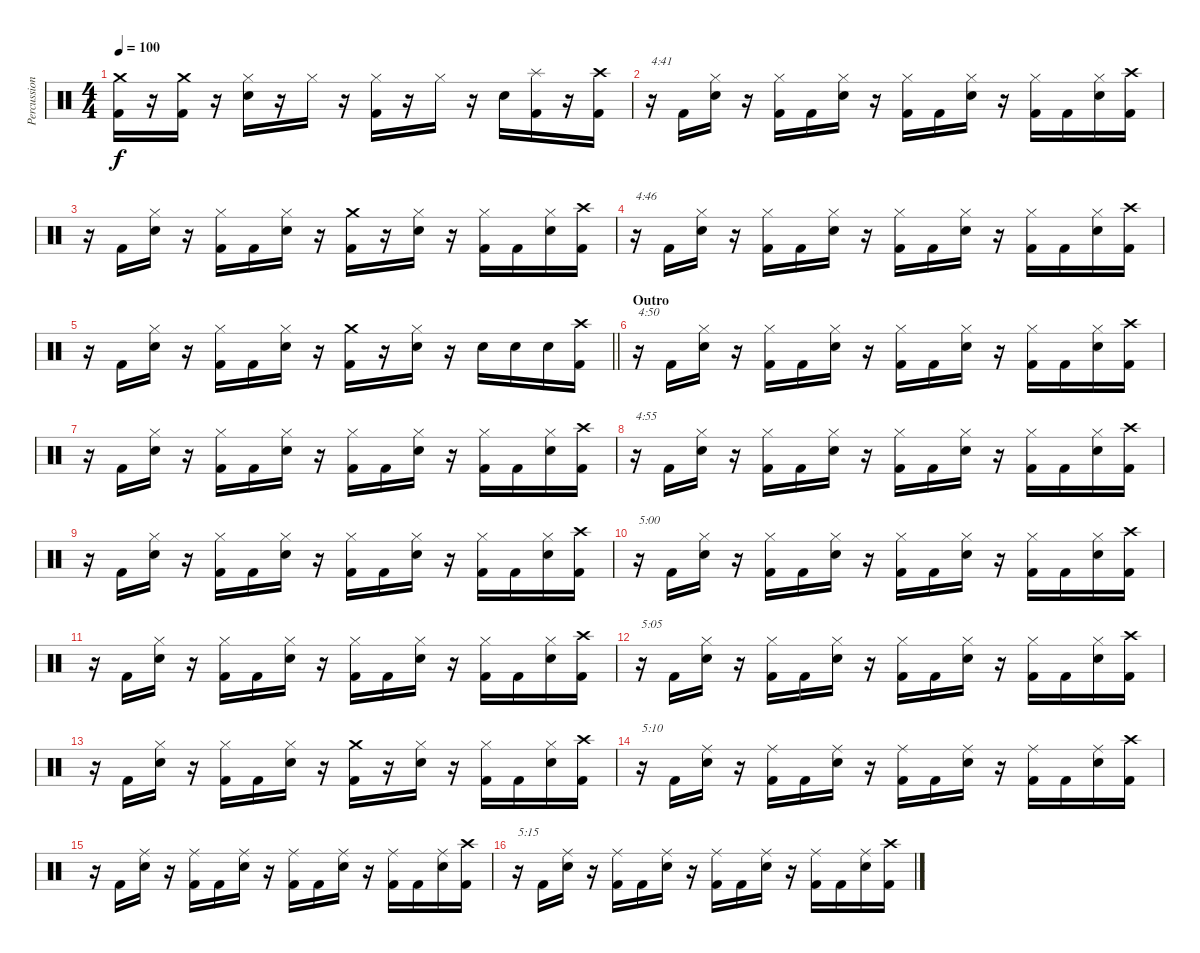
\track ("Percussion" "Percussion") {instrument percussion}
\staff {score}
\articulation defaults
\ts (4 4)
\tempo 100
\clef neutral
\ks c
("Crash medium (hit)" "Kick (hit) 2").16{dy f} r.16 ("Crash medium (hit)" "Kick (hit) 2").16 r.16 ("Hi-Hat (closed)" "Electric Snare (hit)").16 r.16 "Hi-Hat (closed)".16 r.16 ("Hi-Hat (closed)" "Kick (hit) 2").16 r.16 "Hi-Hat (closed)".16 r.16 "Electric Snare (hit)".16 ("Splash (hit)" "Kick (hit) 2").16 r.16 ("Crash high (hit)" "Kick (hit) 2").16 |
r.16{txt "4:41"} "Kick (hit) 2".16 ("Hi-Hat (closed)" "Electric Snare (hit)").16 r.16 ("Hi-Hat (closed)" "Kick (hit) 2").16 "Kick (hit) 2".16 ("Hi-Hat (closed)" "Electric Snare (hit)").16 r.16 ("Hi-Hat (closed)" "Kick (hit) 2").16 "Kick (hit) 2".16 ("Hi-Hat (closed)" "Electric Snare (hit)").16 r.16 ("Hi-Hat (closed)" "Kick (hit) 2").16 "Kick (hit) 2".16 ("Hi-Hat (closed)" "Electric Snare (hit)").16 ("Crash high (hit)" "Kick (hit) 2").16 |
r.16 "Kick (hit) 2".16 ("Hi-Hat (closed)" "Electric Snare (hit)").16 r.16 ("Hi-Hat (closed)" "Kick (hit) 2").16 "Kick (hit) 2".16 ("Hi-Hat (closed)" "Electric Snare (hit)").16 r.16 ("Crash medium (hit)" "Kick (hit) 2").16 r.16 ("Hi-Hat (closed)" "Electric Snare (hit)").16 r.16 ("Hi-Hat (closed)" "Kick (hit) 2").16 "Kick (hit) 2".16 ("Hi-Hat (closed)" "Electric Snare (hit)").16 ("Crash high (hit)" "Kick (hit) 2").16 |
r.16{txt "4:46"} "Kick (hit) 2".16 ("Hi-Hat (closed)" "Electric Snare (hit)").16 r.16 ("Hi-Hat (closed)" "Kick (hit) 2").16 "Kick (hit) 2".16 ("Hi-Hat (closed)" "Electric Snare (hit)").16 r.16 ("Hi-Hat (closed)" "Kick (hit) 2").16 "Kick (hit) 2".16 ("Hi-Hat (closed)" "Electric Snare (hit)").16 r.16 ("Hi-Hat (closed)" "Kick (hit) 2").16 "Kick (hit) 2".16 ("Hi-Hat (closed)" "Electric Snare (hit)").16 ("Crash high (hit)" "Kick (hit) 2").16 |
\barLineRight lightlight
r.16 "Kick (hit) 2".16 ("Hi-Hat (closed)" "Electric Snare (hit)").16 r.16 ("Hi-Hat (closed)" "Kick (hit) 2").16 "Kick (hit) 2".16 ("Hi-Hat (closed)" "Electric Snare (hit)").16 r.16 ("Crash medium (hit)" "Kick (hit) 2").16 r.16 ("Hi-Hat (closed)" "Electric Snare (hit)").16 r.16 "Electric Snare (hit)".16 "Electric Snare (hit)".16 "Electric Snare (hit)".16 ("Crash high (hit)" "Kick (hit) 2").16 |
\section ("" "Outro")
r.16{txt "4:50"} "Kick (hit) 2".16 ("Hi-Hat (closed)" "Electric Snare (hit)").16 r.16 ("Hi-Hat (closed)" "Kick (hit) 2").16 "Kick (hit) 2".16 ("Hi-Hat (closed)" "Electric Snare (hit)").16 r.16 ("Hi-Hat (closed)" "Kick (hit) 2").16 "Kick (hit) 2".16 ("Hi-Hat (closed)" "Electric Snare (hit)").16 r.16 ("Hi-Hat (closed)" "Kick (hit) 2").16 "Kick (hit) 2".16 ("Hi-Hat (closed)" "Electric Snare (hit)").16 ("Crash high (hit)" "Kick (hit) 2").16 |
r.16 "Kick (hit) 2".16 ("Hi-Hat (closed)" "Electric Snare (hit)").16 r.16 ("Hi-Hat (closed)" "Kick (hit) 2").16 "Kick (hit) 2".16 ("Hi-Hat (closed)" "Electric Snare (hit)").16 r.16 ("Hi-Hat (closed)" "Kick (hit) 2").16 "Kick (hit) 2".16 ("Hi-Hat (closed)" "Electric Snare (hit)").16 r.16 ("Hi-Hat (closed)" "Kick (hit) 2").16 "Kick (hit) 2".16 ("Hi-Hat (closed)" "Electric Snare (hit)").16 ("Crash high (hit)" "Kick (hit) 2").16 |
r.16{txt "4:55"} "Kick (hit) 2".16 ("Hi-Hat (closed)" "Electric Snare (hit)").16 r.16 ("Hi-Hat (closed)" "Kick (hit) 2").16 "Kick (hit) 2".16 ("Hi-Hat (closed)" "Electric Snare (hit)").16 r.16 ("Hi-Hat (closed)" "Kick (hit) 2").16 "Kick (hit) 2".16 ("Hi-Hat (closed)" "Electric Snare (hit)").16 r.16 ("Hi-Hat (closed)" "Kick (hit) 2").16 "Kick (hit) 2".16 ("Hi-Hat (closed)" "Electric Snare (hit)").16 ("Crash high (hit)" "Kick (hit) 2").16 |
r.16 "Kick (hit) 2".16 ("Hi-Hat (closed)" "Electric Snare (hit)").16 r.16 ("Hi-Hat (closed)" "Kick (hit) 2").16 "Kick (hit) 2".16 ("Hi-Hat (closed)" "Electric Snare (hit)").16 r.16 ("Hi-Hat (closed)" "Kick (hit) 2").16 "Kick (hit) 2".16 ("Hi-Hat (closed)" "Electric Snare (hit)").16 r.16 ("Hi-Hat (closed)" "Kick (hit) 2").16 "Kick (hit) 2".16 ("Hi-Hat (closed)" "Electric Snare (hit)").16 ("Crash high (hit)" "Kick (hit) 2").16 |
r.16{txt "5:00"} "Kick (hit) 2".16 ("Hi-Hat (closed)" "Electric Snare (hit)").16 r.16 ("Hi-Hat (closed)" "Kick (hit) 2").16 "Kick (hit) 2".16 ("Hi-Hat (closed)" "Electric Snare (hit)").16 r.16 ("Hi-Hat (closed)" "Kick (hit) 2").16 "Kick (hit) 2".16 ("Hi-Hat (closed)" "Electric Snare (hit)").16 r.16 ("Hi-Hat (closed)" "Kick (hit) 2").16 "Kick (hit) 2".16 ("Hi-Hat (closed)" "Electric Snare (hit)").16 ("Crash high (hit)" "Kick (hit) 2").16 |
r.16 "Kick (hit) 2".16 ("Hi-Hat (closed)" "Electric Snare (hit)").16 r.16 ("Hi-Hat (closed)" "Kick (hit) 2").16 "Kick (hit) 2".16 ("Hi-Hat (closed)" "Electric Snare (hit)").16 r.16 ("Hi-Hat (closed)" "Kick (hit) 2").16 "Kick (hit) 2".16 ("Hi-Hat (closed)" "Electric Snare (hit)").16 r.16 ("Hi-Hat (closed)" "Kick (hit) 2").16 "Kick (hit) 2".16 ("Hi-Hat (closed)" "Electric Snare (hit)").16 ("Crash high (hit)" "Kick (hit) 2").16 |
r.16{txt "5:05"} "Kick (hit) 2".16 ("Hi-Hat (closed)" "Electric Snare (hit)").16 r.16 ("Hi-Hat (closed)" "Kick (hit) 2").16 "Kick (hit) 2".16 ("Hi-Hat (closed)" "Electric Snare (hit)").16 r.16 ("Hi-Hat (closed)" "Kick (hit) 2").16 "Kick (hit) 2".16 ("Hi-Hat (closed)" "Electric Snare (hit)").16 r.16 ("Hi-Hat (closed)" "Kick (hit) 2").16 "Kick (hit) 2".16 ("Hi-Hat (closed)" "Electric Snare (hit)").16 ("Crash high (hit)" "Kick (hit) 2").16 |
r.16 "Kick (hit) 2".16 ("Hi-Hat (closed)" "Electric Snare (hit)").16 r.16 ("Hi-Hat (closed)" "Kick (hit) 2").16 "Kick (hit) 2".16 ("Hi-Hat (closed)" "Electric Snare (hit)").16 r.16 ("Crash medium (hit)" "Kick (hit) 2").16 r.16 ("Hi-Hat (closed)" "Electric Snare (hit)").16 r.16 ("Hi-Hat (closed)" "Kick (hit) 2").16 "Kick (hit) 2".16 ("Hi-Hat (closed)" "Electric Snare (hit)").16 ("Crash high (hit)" "Kick (hit) 2").16 |
r.16{txt "5:10"} "Kick (hit) 2".16 ("Ride (middle)" "Electric Snare (hit)").16 r.16 ("Ride (middle)" "Kick (hit) 2").16 "Kick (hit) 2".16 ("Ride (middle)" "Electric Snare (hit)").16 r.16 ("Ride (middle)" "Kick (hit) 2").16 "Kick (hit) 2".16 ("Ride (middle)" "Electric Snare (hit)").16 r.16 ("Ride (middle)" "Kick (hit) 2").16 "Kick (hit) 2".16 ("Ride (middle)" "Electric Snare (hit)").16 ("Crash high (hit)" "Kick (hit) 2").16 |
r.16 "Kick (hit) 2".16 ("Ride (middle)" "Electric Snare (hit)").16 r.16 ("Ride (middle)" "Kick (hit) 2").16 "Kick (hit) 2".16 ("Ride (middle)" "Electric Snare (hit)").16 r.16 ("Ride (middle)" "Kick (hit) 2").16 "Kick (hit) 2".16 ("Ride (middle)" "Electric Snare (hit)").16 r.16 ("Ride (middle)" "Kick (hit) 2").16 "Kick (hit) 2".16 ("Ride (middle)" "Electric Snare (hit)").16 ("Crash high (hit)" "Kick (hit) 2").16 |
r.16{txt "5:15"} "Kick (hit) 2".16 ("Ride (middle)" "Electric Snare (hit)").16 r.16 ("Ride (middle)" "Kick (hit) 2").16 "Kick (hit) 2".16 ("Ride (middle)" "Electric Snare (hit)").16 r.16 ("Ride (middle)" "Kick (hit) 2").16 "Kick (hit) 2".16 ("Ride (middle)" "Electric Snare (hit)").16 r.16 ("Ride (middle)" "Kick (hit) 2").16 "Kick (hit) 2".16 ("Ride (middle)" "Electric Snare (hit)").16 ("Crash high (hit)" "Kick (hit) 2").16
